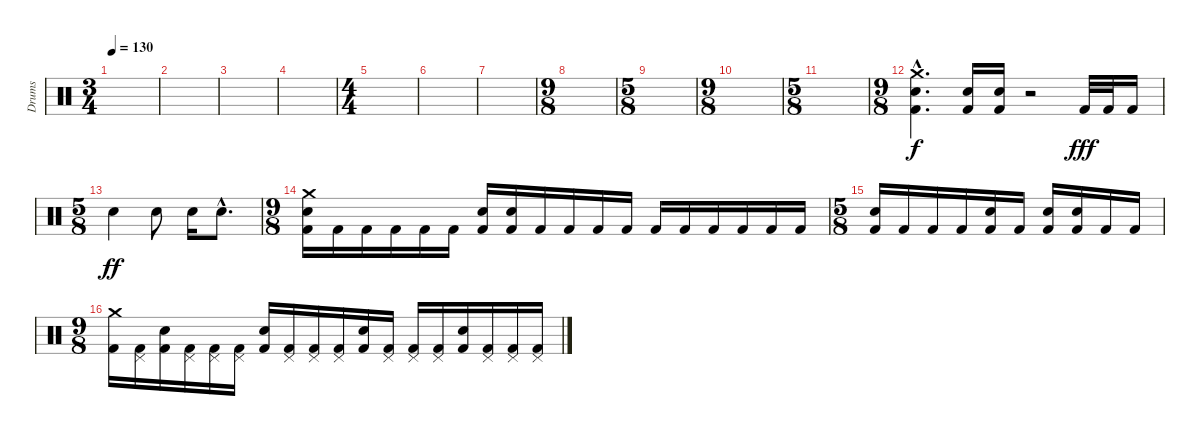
\track ("Drums" "Drums") {instrument percussion}
\staff {score}
\articulation defaults
\ts (3 4)
\tempo 130
\clef neutral
\ks c
|
|
|
|
\ts (4 4)
|
|
|
\ts (9 8)
|
\ts (5 8)
|
\ts (9 8)
|
\ts (5 8)
|
\ts (9 8)
("Kick (hit) 2"{hac} "Electric Snare (hit)"{hac} "Crash medium (hit)"{hac}).4{d} ("Kick (hit) 2" "Electric Snare (hit)").16 ("Kick (hit) 2" "Electric Snare (hit)").16 r.2 "Kick (hit) 2".32{dy fff} "Kick (hit) 2".32 "Kick (hit) 2".16 |
\ts (5 8)
"Electric Snare (hit)".4{dy ff} "Electric Snare (hit)".8 "Electric Snare (hit)".16 "Electric Snare (hit)"{hac}.8{d} |
\ts (9 8)
("Kick (hit) 2" "Electric Snare (hit)" "Crash medium (hit)").16 "Kick (hit) 2".16 "Kick (hit) 2".16 "Kick (hit) 2".16 "Kick (hit) 2".16 "Kick (hit) 2".16 ("Kick (hit) 2" "Electric Snare (hit)").16 ("Kick (hit) 2" "Electric Snare (hit)").16 "Kick (hit) 2".16 "Kick (hit) 2".16 "Kick (hit) 2".16 "Kick (hit) 2".16 "Kick (hit) 2".16 "Kick (hit) 2".16 "Kick (hit) 2".16 "Kick (hit) 2".16 "Kick (hit) 2".16 "Kick (hit) 2".16 |
\ts (5 8)
("Kick (hit) 2" "Electric Snare (hit)").16 "Kick (hit) 2".16 "Kick (hit) 2".16 "Kick (hit) 2".16 ("Kick (hit) 2" "Electric Snare (hit)").16 "Kick (hit) 2".16 ("Kick (hit) 2" "Electric Snare (hit)").16 ("Kick (hit) 2" "Electric Snare (hit)").16 "Kick (hit) 2".16 "Kick (hit) 2".16 |
\ts (9 8)
("Kick (hit) 2" "Crash medium (hit)").16 ("Kick (hit) 2" "Pedal Hi-Hat (hit)").16 ("Kick (hit) 2" "Electric Snare (hit)").16 ("Kick (hit) 2" "Pedal Hi-Hat (hit)").16 ("Kick (hit) 2" "Pedal Hi-Hat (hit)").16 ("Kick (hit) 2" "Pedal Hi-Hat (hit)").16 ("Kick (hit) 2" "Electric Snare (hit)").16 ("Kick (hit) 2" "Pedal Hi-Hat (hit)").16 ("Kick (hit) 2" "Pedal Hi-Hat (hit)").16 ("Kick (hit) 2" "Pedal Hi-Hat (hit)").16 ("Kick (hit) 2" "Electric Snare (hit)").16 ("Kick (hit) 2" "Pedal Hi-Hat (hit)").16 ("Kick (hit) 2" "Pedal Hi-Hat (hit)").16 ("Kick (hit) 2" "Pedal Hi-Hat (hit)").16 ("Kick (hit) 2" "Electric Snare (hit)").16 ("Kick (hit) 2" "Pedal Hi-Hat (hit)").16 ("Kick (hit) 2" "Pedal Hi-Hat (hit)").16 ("Kick (hit) 2" "Pedal Hi-Hat (hit)").16
